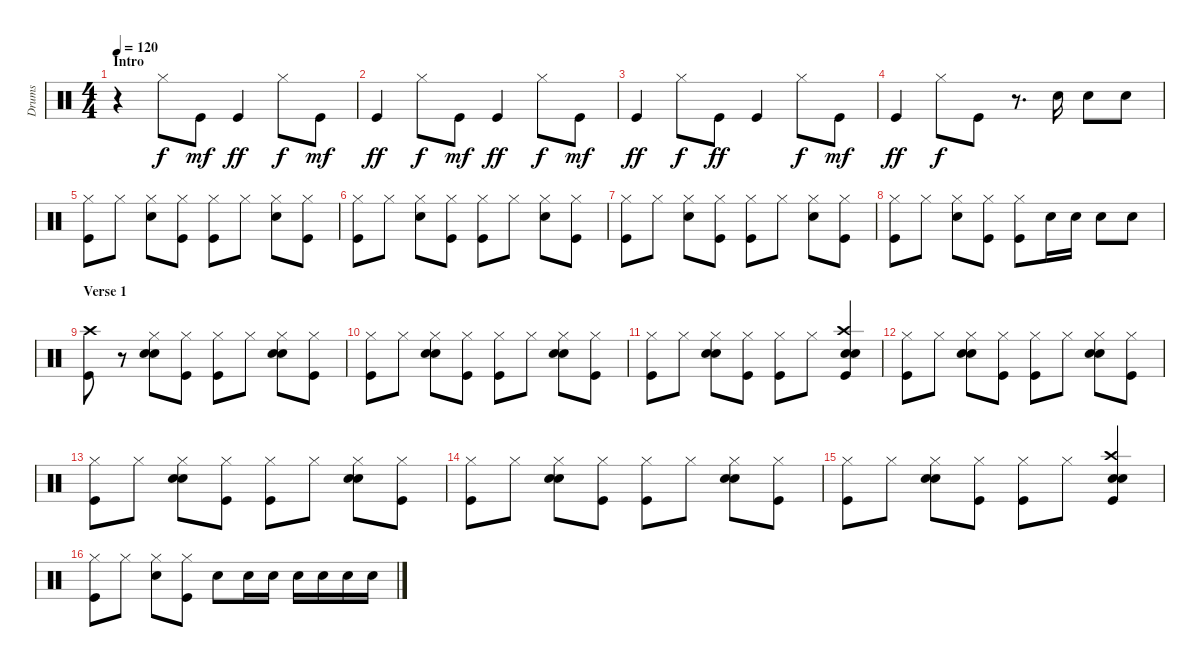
\track ("Drums" "Drums") {instrument percussion}
\staff {score}
\articulation defaults
\ts (4 4)
\section ("" "Intro")
\tempo 120
\clef neutral
\ks c
r.4{dy f} "Hi-Hat (closed)".8 "Kick (hit)".8{dy mf} "Kick (hit)".4{dy ff} "Hi-Hat (closed)".8{dy f} "Kick (hit)".8{dy mf} |
"Kick (hit)".4{dy ff} "Hi-Hat (closed)".8{dy f} "Kick (hit)".8{dy mf} "Kick (hit)".4{dy ff} "Hi-Hat (closed)".8{dy f} "Kick (hit)".8{dy mf} |
"Kick (hit)".4{dy ff} "Hi-Hat (closed)".8{dy f} "Kick (hit)".8{dy ff} "Kick (hit)".4 "Hi-Hat (closed)".8{dy f} "Kick (hit)".8{dy mf} |
"Kick (hit)".4{dy ff} "Hi-Hat (closed)".8{dy f} "Kick (hit)".8 r.8{d} "Snare (hit) 2".16 "Snare (hit) 2".8 "Snare (hit) 2".8 |
("Hi-Hat (closed)" "Kick (hit)").8 "Hi-Hat (closed)".8 ("Hi-Hat (closed)" "Snare (hit) 2").8 ("Hi-Hat (closed)" "Kick (hit)").8 ("Hi-Hat (closed)" "Kick (hit)").8 "Hi-Hat (closed)".8 ("Hi-Hat (closed)" "Snare (hit) 2").8 ("Hi-Hat (closed)" "Kick (hit)").8 |
("Hi-Hat (closed)" "Kick (hit)").8 "Hi-Hat (closed)".8 ("Hi-Hat (closed)" "Snare (hit) 2").8 ("Hi-Hat (closed)" "Kick (hit)").8 ("Hi-Hat (closed)" "Kick (hit)").8 "Hi-Hat (closed)".8 ("Hi-Hat (closed)" "Snare (hit) 2").8 ("Hi-Hat (closed)" "Kick (hit)").8 |
("Hi-Hat (closed)" "Kick (hit)").8 "Hi-Hat (closed)".8 ("Hi-Hat (closed)" "Snare (hit) 2").8 ("Hi-Hat (closed)" "Kick (hit)").8 ("Hi-Hat (closed)" "Kick (hit)").8 "Hi-Hat (closed)".8 ("Hi-Hat (closed)" "Snare (hit) 2").8 ("Hi-Hat (closed)" "Kick (hit)").8 |
("Hi-Hat (closed)" "Kick (hit)").8 "Hi-Hat (closed)".8 ("Hi-Hat (closed)" "Snare (hit) 2").8 ("Hi-Hat (closed)" "Kick (hit)").8 ("Hi-Hat (closed)" "Kick (hit)").8 "Snare (hit) 2".16 "Snare (hit) 2".16 "Snare (hit) 2".8 "Snare (hit) 2".8 |
\section ("" "Verse 1")
("Crash high (hit)" "Kick (hit)").8 r.8 ("Hi-Hat (closed)" "Snare (hit) 2" "Hand Clap (hit)").8 ("Hi-Hat (closed)" "Kick (hit)").8 ("Hi-Hat (closed)" "Kick (hit)").8 "Hi-Hat (closed)".8 ("Hi-Hat (closed)" "Snare (hit) 2" "Hand Clap (hit)").8 ("Hi-Hat (closed)" "Kick (hit)").8 |
("Hi-Hat (closed)" "Kick (hit)").8 "Hi-Hat (closed)".8 ("Hi-Hat (closed)" "Snare (hit) 2" "Hand Clap (hit)").8 ("Hi-Hat (closed)" "Kick (hit)").8 ("Hi-Hat (closed)" "Kick (hit)").8 "Hi-Hat (closed)".8 ("Hi-Hat (closed)" "Snare (hit) 2" "Hand Clap (hit)").8 ("Hi-Hat (closed)" "Kick (hit)").8 |
("Hi-Hat (closed)" "Kick (hit)").8 "Hi-Hat (closed)".8 ("Hi-Hat (closed)" "Snare (hit) 2" "Hand Clap (hit)").8 ("Hi-Hat (closed)" "Kick (hit)").8 ("Hi-Hat (closed)" "Kick (hit)").8 "Hi-Hat (closed)".8 ("Crash high (hit)" "Snare (hit) 2" "Hand Clap (hit)" "Kick (hit)").4 |
("Hi-Hat (closed)" "Kick (hit)").8 "Hi-Hat (closed)".8 ("Hi-Hat (closed)" "Snare (hit) 2" "Hand Clap (hit)").8 ("Hi-Hat (closed)" "Kick (hit)").8 ("Hi-Hat (closed)" "Kick (hit)").8 "Hi-Hat (closed)".8 ("Hi-Hat (closed)" "Snare (hit) 2" "Hand Clap (hit)").8 ("Hi-Hat (closed)" "Kick (hit)").8 |
("Hi-Hat (closed)" "Kick (hit)").8 "Hi-Hat (closed)".8 ("Hi-Hat (closed)" "Snare (hit) 2" "Hand Clap (hit)").8 ("Hi-Hat (closed)" "Kick (hit)").8 ("Hi-Hat (closed)" "Kick (hit)").8 "Hi-Hat (closed)".8 ("Hi-Hat (closed)" "Snare (hit) 2" "Hand Clap (hit)").8 ("Hi-Hat (closed)" "Kick (hit)").8 |
("Hi-Hat (closed)" "Kick (hit)").8 "Hi-Hat (closed)".8 ("Hi-Hat (closed)" "Snare (hit) 2" "Hand Clap (hit)").8 ("Hi-Hat (closed)" "Kick (hit)").8 ("Hi-Hat (closed)" "Kick (hit)").8 "Hi-Hat (closed)".8 ("Hi-Hat (closed)" "Snare (hit) 2" "Hand Clap (hit)").8 ("Hi-Hat (closed)" "Kick (hit)").8 |
("Hi-Hat (closed)" "Kick (hit)").8 "Hi-Hat (closed)".8 ("Hi-Hat (closed)" "Snare (hit) 2" "Hand Clap (hit)").8 ("Hi-Hat (closed)" "Kick (hit)").8 ("Hi-Hat (closed)" "Kick (hit)").8 "Hi-Hat (closed)".8 ("Crash high (hit)" "Snare (hit) 2" "Hand Clap (hit)" "Kick (hit)").4 |
("Hi-Hat (closed)" "Kick (hit)").8 "Hi-Hat (closed)".8 ("Hi-Hat (closed)" "Snare (hit) 2").8 ("Hi-Hat (closed)" "Kick (hit)").8 "Snare (hit) 2".8 "Snare (hit) 2".16 "Snare (hit) 2".16 "Snare (hit) 2".16 "Snare (hit) 2".16 "Snare (hit) 2".16 "Snare (hit) 2".16
